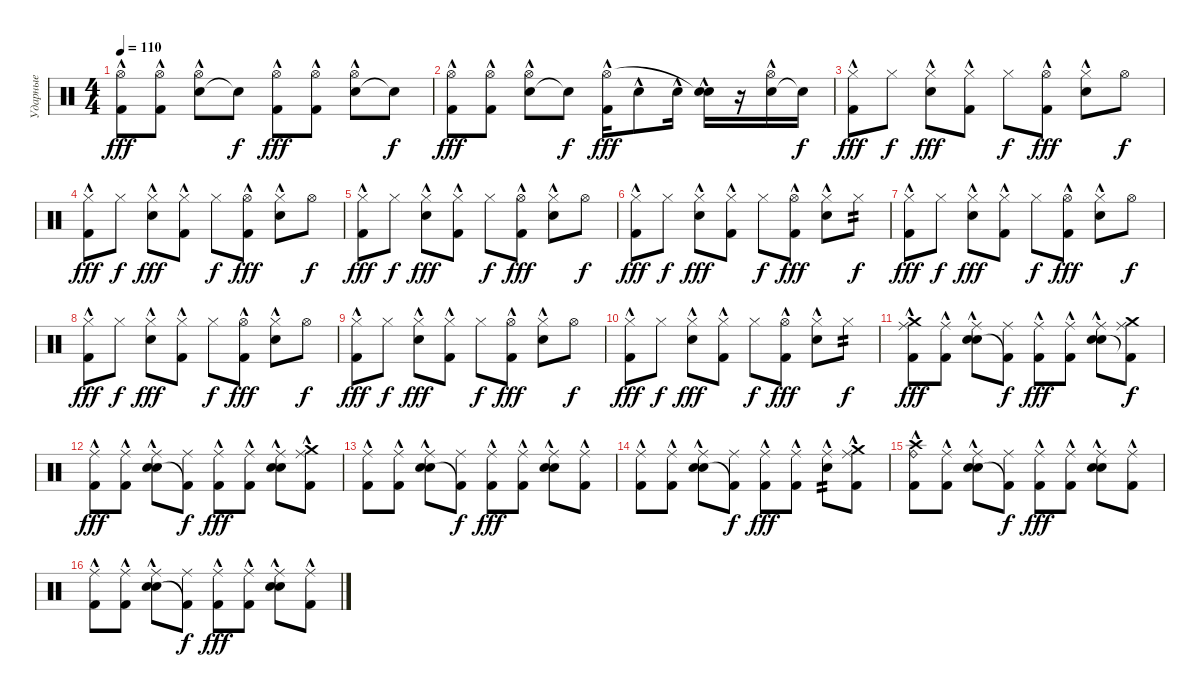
\track ("Ударные" "Ударные") {instrument percussion}
\staff {score}
\articulation defaults
\ts (4 4)
\tempo 110
\clef neutral
\ks c
("Kick (hit) 2"{hac} "Hi-Hat (open)").8{dy fff} ("Kick (hit) 2"{hac} "Hi-Hat (open)").8 ("Snare (hit) 2"{hac} "Hi-Hat (open)").8 "Snare (hit)"{t}.8{dy f} ("Kick (hit) 2"{hac} "Hi-Hat (open)").8{dy fff} ("Kick (hit) 2"{hac} "Hi-Hat (open)").8 ("Snare (hit) 2"{hac} "Hi-Hat (open)").8 "Snare (hit)"{t}.8{dy f} |
("Kick (hit) 2"{hac} "Hi-Hat (open)").8{dy fff} ("Kick (hit) 2"{hac} "Hi-Hat (open)").8 ("Snare (hit) 2"{hac} "Hi-Hat (open)").8 "Snare (hit)"{t}.8{dy f} ("Kick (hit) 2"{hac} "Hi-Hat (open)").16{dy fff} "Snare (hit) 2"{hac}.8 "Snare (hit) 2"{hac}.16 ("Snare (hit) 2"{hac} "Snare (hit)"{t}).16 r.16 ("Snare (hit) 2"{hac} "Hi-Hat (open)").16 "Snare (hit)"{t}.16{dy f} |
("Kick (hit) 2"{hac} "Hi-Hat (closed)").8{dy fff} "Hi-Hat (closed)".8{dy f} ("Snare (hit) 2"{hac} "Hi-Hat (closed)").8{dy fff} ("Kick (hit) 2"{hac} "Hi-Hat (closed)").8 "Hi-Hat (closed)".8{dy f} ("Kick (hit) 2"{hac} "Hi-Hat (open)").8{dy fff} ("Hi-Hat (closed)" "Snare (hit) 2"{hac}).8 "Hi-Hat (open)".8{dy f} |
("Kick (hit) 2"{hac} "Hi-Hat (closed)").8{dy fff} "Hi-Hat (closed)".8{dy f} ("Snare (hit) 2"{hac} "Hi-Hat (closed)").8{dy fff} ("Kick (hit) 2"{hac} "Hi-Hat (closed)").8 "Hi-Hat (closed)".8{dy f} ("Kick (hit) 2"{hac} "Hi-Hat (open)").8{dy fff} ("Hi-Hat (closed)" "Snare (hit) 2"{hac}).8 "Hi-Hat (open)".8{dy f} |
("Kick (hit) 2"{hac} "Hi-Hat (closed)").8{dy fff} "Hi-Hat (closed)".8{dy f} ("Snare (hit) 2"{hac} "Hi-Hat (closed)").8{dy fff} ("Kick (hit) 2"{hac} "Hi-Hat (closed)").8 "Hi-Hat (closed)".8{dy f} ("Kick (hit) 2"{hac} "Hi-Hat (open)").8{dy fff} ("Hi-Hat (closed)" "Snare (hit) 2"{hac}).8 "Hi-Hat (open)".8{dy f} |
("Kick (hit) 2"{hac} "Hi-Hat (closed)").8{dy fff} "Hi-Hat (closed)".8{dy f} ("Snare (hit) 2"{hac} "Hi-Hat (closed)").8{dy fff} ("Kick (hit) 2"{hac} "Hi-Hat (closed)").8 "Hi-Hat (closed)".8{dy f} ("Kick (hit) 2"{hac} "Hi-Hat (open)").8{dy fff} ("Hi-Hat (closed)" "Snare (hit) 2"{hac}).8 "Hi-Hat (closed)".8{tp 2 dy f} |
("Kick (hit) 2"{hac} "Hi-Hat (closed)").8{dy fff} "Hi-Hat (closed)".8{dy f} ("Snare (hit) 2"{hac} "Hi-Hat (closed)").8{dy fff} ("Kick (hit) 2"{hac} "Hi-Hat (closed)").8 "Hi-Hat (closed)".8{dy f} ("Kick (hit) 2"{hac} "Hi-Hat (open)").8{dy fff} ("Hi-Hat (closed)" "Snare (hit) 2"{hac}).8 "Hi-Hat (open)".8{dy f} |
("Kick (hit) 2"{hac} "Hi-Hat (closed)").8{dy fff} "Hi-Hat (closed)".8{dy f} ("Snare (hit) 2"{hac} "Hi-Hat (closed)").8{dy fff} ("Kick (hit) 2"{hac} "Hi-Hat (closed)").8 "Hi-Hat (closed)".8{dy f} ("Kick (hit) 2"{hac} "Hi-Hat (open)").8{dy fff} ("Hi-Hat (closed)" "Snare (hit) 2"{hac}).8 "Hi-Hat (open)".8{dy f} |
("Kick (hit) 2"{hac} "Hi-Hat (closed)").8{dy fff} "Hi-Hat (closed)".8{dy f} ("Snare (hit) 2"{hac} "Hi-Hat (closed)").8{dy fff} ("Kick (hit) 2"{hac} "Hi-Hat (closed)").8 "Hi-Hat (closed)".8{dy f} ("Kick (hit) 2"{hac} "Hi-Hat (open)").8{dy fff} ("Hi-Hat (closed)" "Snare (hit) 2"{hac}).8 "Hi-Hat (open)".8{dy f} |
("Kick (hit) 2"{hac} "Hi-Hat (closed)").8{dy fff} "Hi-Hat (closed)".8{dy f} ("Snare (hit) 2"{hac} "Hi-Hat (closed)").8{dy fff} ("Kick (hit) 2"{hac} "Hi-Hat (closed)").8 "Hi-Hat (closed)".8{dy f} ("Kick (hit) 2"{hac} "Hi-Hat (open)").8{dy fff} ("Hi-Hat (closed)" "Snare (hit) 2"{hac}).8 "Hi-Hat (closed)".8{tp 2 dy f} |
("Kick (hit) 2"{hac} "Crash medium (hit)" "Ride (middle)").8{dy fff} ("Kick (hit) 2"{hac} "Ride (middle)").8 ("Snare (hit) 2"{hac} "Electric Snare (hit)"{hac} "Ride (middle)").8 ("Kick (hit) 2"{t} "Ride (middle)").8{dy f} ("Kick (hit) 2"{hac} "Ride (middle)").8{dy fff} ("Kick (hit) 2"{hac} "Ride (middle)").8 ("Snare (hit) 2"{hac} "Electric Snare (hit)"{hac} "Ride (middle)").8 ("Kick (hit) 2"{t} "Crash medium (hit)" "Ride (middle)").8{dy f} |
("Kick (hit) 2"{hac} "Ride (middle)").8{dy fff} ("Kick (hit) 2"{hac} "Ride (middle)").8 ("Snare (hit) 2"{hac} "Electric Snare (hit)"{hac} "Ride (middle)").8 ("Kick (hit) 2"{t} "Ride (middle)").8{dy f} ("Kick (hit) 2"{hac} "Ride (middle)").8{dy fff} ("Kick (hit) 2"{hac} "Ride (middle)").8 ("Snare (hit) 2"{hac} "Electric Snare (hit)"{hac} "Ride (middle)").8 ("Kick (hit) 2"{hac} "Crash medium (hit)" "Ride (middle)").8 |
("Kick (hit) 2"{hac} "Ride (middle)").8 ("Kick (hit) 2"{hac} "Ride (middle)").8 ("Snare (hit) 2"{hac} "Electric Snare (hit)"{hac} "Ride (middle)").8 ("Kick (hit) 2"{t} "Ride (middle)").8{dy f} ("Kick (hit) 2"{hac} "Ride (middle)").8{dy fff} ("Kick (hit) 2"{hac} "Ride (middle)").8 ("Snare (hit) 2"{hac} "Electric Snare (hit)"{hac} "Ride (middle)").8 ("Kick (hit) 2"{hac} "Ride (middle)").8 |
("Kick (hit) 2"{hac} "Ride (middle)").8 ("Kick (hit) 2"{hac} "Ride (middle)").8 ("Snare (hit) 2"{hac} "Electric Snare (hit)"{hac} "Ride (middle)").8 ("Kick (hit) 2"{t} "Ride (middle)").8{dy f} ("Kick (hit) 2"{hac} "Ride (middle)").8{dy fff} ("Kick (hit) 2"{hac} "Ride (middle)").8 ("Snare (hit) 2"{hac} "Ride (middle)").8{tp 2} ("Kick (hit) 2"{hac} "Crash medium (hit)" "Ride (middle)").8 |
("Kick (hit) 2"{hac} "Crash high (hit)" "Ride (bell)").8 ("Kick (hit) 2"{hac} "Ride (middle)").8 ("Snare (hit) 2"{hac} "Electric Snare (hit)"{hac} "Ride (middle)").8 ("Kick (hit) 2"{t} "Ride (middle)").8{dy f} ("Kick (hit) 2"{hac} "Ride (middle)").8{dy fff} ("Kick (hit) 2"{hac} "Ride (middle)").8 ("Snare (hit) 2"{hac} "Electric Snare (hit)"{hac} "Ride (middle)").8 ("Kick (hit) 2"{hac} "Ride (middle)").8 |
("Kick (hit) 2"{hac} "Ride (middle)").8 ("Kick (hit) 2"{hac} "Ride (middle)").8 ("Snare (hit) 2"{hac} "Electric Snare (hit)"{hac} "Ride (middle)").8 ("Kick (hit) 2"{t} "Ride (middle)").8{dy f} ("Kick (hit) 2"{hac} "Ride (middle)").8{dy fff} ("Kick (hit) 2"{hac} "Ride (middle)").8 ("Snare (hit) 2"{hac} "Electric Snare (hit)"{hac} "Ride (middle)").8 ("Kick (hit) 2"{hac} "Ride (middle)").8
